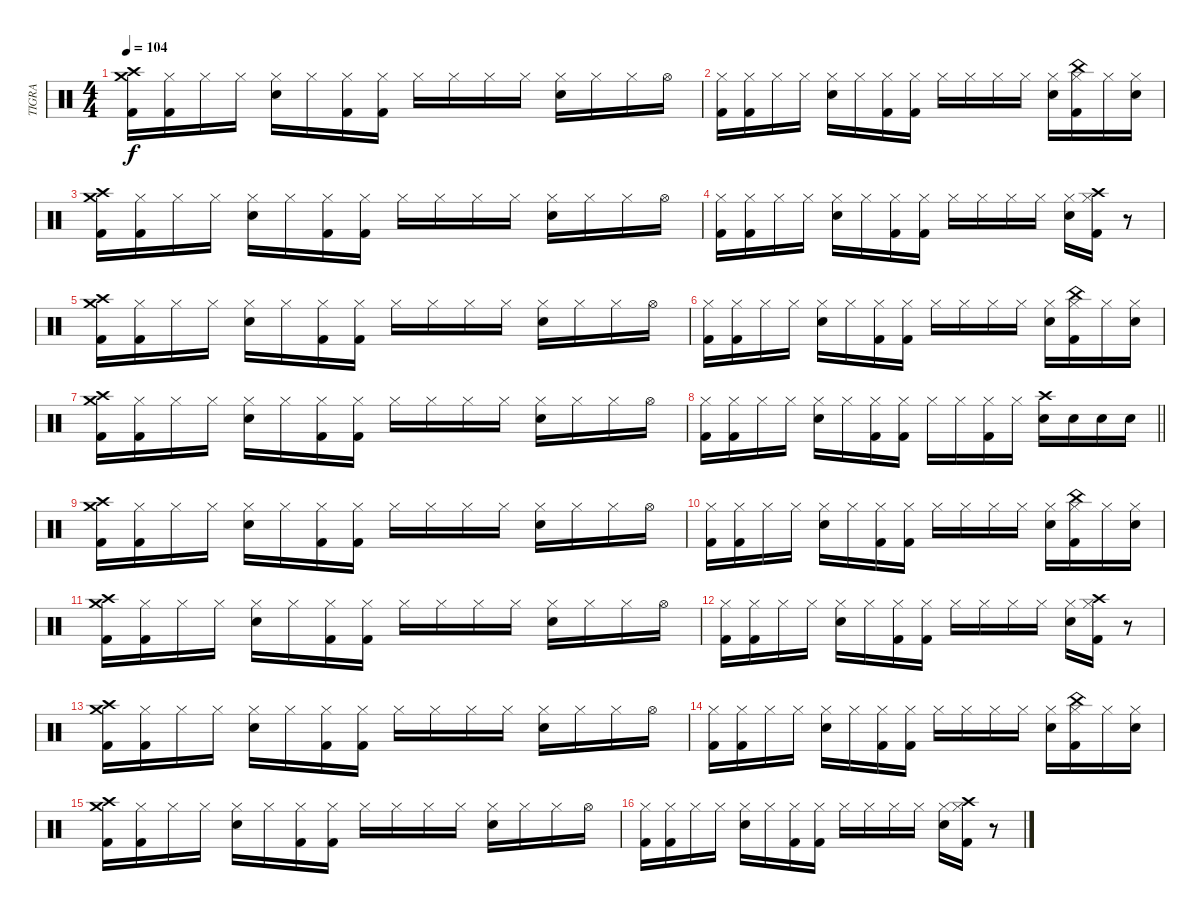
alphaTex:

\track ("TIGRA" "TIGRA") {instrument percussion}
\staff {score}
\articulation defaults
\ts (4 4)
\tempo 104
\clef neutral
\ks c
("Crash medium (hit)" "Crash high (hit)" "Kick (hit) 2").16{dy f} ("Hi-Hat (closed)" "Kick (hit) 2").16 "Hi-Hat (closed)".16 "Hi-Hat (closed)".16 ("Hi-Hat (closed)" "Snare (hit) 2").16 "Hi-Hat (closed)".16 ("Hi-Hat (closed)" "Kick (hit) 2").16 ("Hi-Hat (closed)" "Kick (hit) 2").16 "Hi-Hat (closed)".16 "Hi-Hat (closed)".16 "Hi-Hat (closed)".16 "Hi-Hat (closed)".16 ("Hi-Hat (closed)" "Snare (hit) 2").16 "Hi-Hat (closed)".16 "Hi-Hat (closed)".16 "Hi-Hat (open)".16 |
("Hi-Hat (closed)" "Kick (hit) 2").16 ("Hi-Hat (closed)" "Kick (hit) 2").16 "Hi-Hat (closed)".16 "Hi-Hat (closed)".16 ("Hi-Hat (closed)" "Snare (hit) 2").16 "Hi-Hat (closed)".16 ("Hi-Hat (closed)" "Kick (hit) 2").16 ("Hi-Hat (closed)" "Kick (hit) 2").16 "Hi-Hat (closed)".16 "Hi-Hat (closed)".16 "Hi-Hat (closed)".16 "Hi-Hat (closed)".16 ("Hi-Hat (closed)" "Snare (hit) 2").16 ("Hi-Hat (closed)" "China (hit)" "Kick (hit) 2").16 "Hi-Hat (closed)".16 ("Hi-Hat (closed)" "Snare (hit) 2").16 |
("Crash medium (hit)" "Crash high (hit)" "Kick (hit) 2").16 ("Hi-Hat (closed)" "Kick (hit) 2").16 "Hi-Hat (closed)".16 "Hi-Hat (closed)".16 ("Hi-Hat (closed)" "Snare (hit) 2").16 "Hi-Hat (closed)".16 ("Hi-Hat (closed)" "Kick (hit) 2").16 ("Hi-Hat (closed)" "Kick (hit) 2").16 "Hi-Hat (closed)".16 "Hi-Hat (closed)".16 "Hi-Hat (closed)".16 "Hi-Hat (closed)".16 ("Hi-Hat (closed)" "Snare (hit) 2").16 "Hi-Hat (closed)".16 "Hi-Hat (closed)".16 "Hi-Hat (open)".16 |
("Hi-Hat (closed)" "Kick (hit) 2").16 ("Hi-Hat (closed)" "Kick (hit) 2").16 "Hi-Hat (closed)".16 "Hi-Hat (closed)".16 ("Hi-Hat (closed)" "Snare (hit) 2").16 "Hi-Hat (closed)".16 ("Hi-Hat (closed)" "Kick (hit) 2").16 ("Hi-Hat (closed)" "Kick (hit) 2").16 "Hi-Hat (closed)".16 "Hi-Hat (closed)".16 "Hi-Hat (closed)".16 "Hi-Hat (closed)".16 ("Hi-Hat (closed)" "Snare (hit) 2").16 ("Hi-Hat (closed)" "Crash high (hit)" "Kick (hit) 2").16 r.8 |
("Crash medium (hit)" "Crash high (hit)" "Kick (hit) 2").16 ("Hi-Hat (closed)" "Kick (hit) 2").16 "Hi-Hat (closed)".16 "Hi-Hat (closed)".16 ("Hi-Hat (closed)" "Snare (hit) 2").16 "Hi-Hat (closed)".16 ("Hi-Hat (closed)" "Kick (hit) 2").16 ("Hi-Hat (closed)" "Kick (hit) 2").16 "Hi-Hat (closed)".16 "Hi-Hat (closed)".16 "Hi-Hat (closed)".16 "Hi-Hat (closed)".16 ("Hi-Hat (closed)" "Snare (hit) 2").16 "Hi-Hat (closed)".16 "Hi-Hat (closed)".16 "Hi-Hat (open)".16 |
("Hi-Hat (closed)" "Kick (hit) 2").16 ("Hi-Hat (closed)" "Kick (hit) 2").16 "Hi-Hat (closed)".16 "Hi-Hat (closed)".16 ("Hi-Hat (closed)" "Snare (hit) 2").16 "Hi-Hat (closed)".16 ("Hi-Hat (closed)" "Kick (hit) 2").16 ("Hi-Hat (closed)" "Kick (hit) 2").16 "Hi-Hat (closed)".16 "Hi-Hat (closed)".16 "Hi-Hat (closed)".16 "Hi-Hat (closed)".16 ("Hi-Hat (closed)" "Snare (hit) 2").16 ("Hi-Hat (closed)" "China (hit)" "Kick (hit) 2").16 "Hi-Hat (closed)".16 ("Hi-Hat (closed)" "Snare (hit) 2").16 |
("Crash medium (hit)" "Crash high (hit)" "Kick (hit) 2").16 ("Hi-Hat (closed)" "Kick (hit) 2").16 "Hi-Hat (closed)".16 "Hi-Hat (closed)".16 ("Hi-Hat (closed)" "Snare (hit) 2").16 "Hi-Hat (closed)".16 ("Hi-Hat (closed)" "Kick (hit) 2").16 ("Hi-Hat (closed)" "Kick (hit) 2").16 "Hi-Hat (closed)".16 "Hi-Hat (closed)".16 "Hi-Hat (closed)".16 "Hi-Hat (closed)".16 ("Hi-Hat (closed)" "Snare (hit) 2").16 "Hi-Hat (closed)".16 "Hi-Hat (closed)".16 "Hi-Hat (open)".16 |
\barLineRight lightlight
("Hi-Hat (closed)" "Kick (hit) 2").16 ("Hi-Hat (closed)" "Kick (hit) 2").16 "Hi-Hat (closed)".16 "Hi-Hat (closed)".16 ("Hi-Hat (closed)" "Snare (hit) 2").16 "Hi-Hat (closed)".16 ("Hi-Hat (closed)" "Kick (hit) 2").16 ("Hi-Hat (closed)" "Kick (hit) 2").16 "Hi-Hat (closed)".16 "Hi-Hat (closed)".16 ("Hi-Hat (closed)" "Kick (hit) 2").16 "Hi-Hat (closed)".16 ("Crash high (hit)" "Snare (hit) 2").16 "Snare (hit) 2".16 "Snare (hit) 2".16 "Snare (hit) 2".16 |
("Crash medium (hit)" "Crash high (hit)" "Kick (hit) 2").16 ("Hi-Hat (closed)" "Kick (hit) 2").16 "Hi-Hat (closed)".16 "Hi-Hat (closed)".16 ("Hi-Hat (closed)" "Snare (hit) 2").16 "Hi-Hat (closed)".16 ("Hi-Hat (closed)" "Kick (hit) 2").16 ("Hi-Hat (closed)" "Kick (hit) 2").16 "Hi-Hat (closed)".16 "Hi-Hat (closed)".16 "Hi-Hat (closed)".16 "Hi-Hat (closed)".16 ("Hi-Hat (closed)" "Snare (hit) 2").16 "Hi-Hat (closed)".16 "Hi-Hat (closed)".16 "Hi-Hat (open)".16 |
("Hi-Hat (closed)" "Kick (hit) 2").16 ("Hi-Hat (closed)" "Kick (hit) 2").16 "Hi-Hat (closed)".16 "Hi-Hat (closed)".16 ("Hi-Hat (closed)" "Snare (hit) 2").16 "Hi-Hat (closed)".16 ("Hi-Hat (closed)" "Kick (hit) 2").16 ("Hi-Hat (closed)" "Kick (hit) 2").16 "Hi-Hat (closed)".16 "Hi-Hat (closed)".16 "Hi-Hat (closed)".16 "Hi-Hat (closed)".16 ("Hi-Hat (closed)" "Snare (hit) 2").16 ("Hi-Hat (closed)" "China (hit)" "Kick (hit) 2").16 "Hi-Hat (closed)".16 ("Hi-Hat (closed)" "Snare (hit) 2").16 |
("Crash medium (hit)" "Crash high (hit)" "Kick (hit) 2").16 ("Hi-Hat (closed)" "Kick (hit) 2").16 "Hi-Hat (closed)".16 "Hi-Hat (closed)".16 ("Hi-Hat (closed)" "Snare (hit) 2").16 "Hi-Hat (closed)".16 ("Hi-Hat (closed)" "Kick (hit) 2").16 ("Hi-Hat (closed)" "Kick (hit) 2").16 "Hi-Hat (closed)".16 "Hi-Hat (closed)".16 "Hi-Hat (closed)".16 "Hi-Hat (closed)".16 ("Hi-Hat (closed)" "Snare (hit) 2").16 "Hi-Hat (closed)".16 "Hi-Hat (closed)".16 "Hi-Hat (open)".16 |
("Hi-Hat (closed)" "Kick (hit) 2").16 ("Hi-Hat (closed)" "Kick (hit) 2").16 "Hi-Hat (closed)".16 "Hi-Hat (closed)".16 ("Hi-Hat (closed)" "Snare (hit) 2").16 "Hi-Hat (closed)".16 ("Hi-Hat (closed)" "Kick (hit) 2").16 ("Hi-Hat (closed)" "Kick (hit) 2").16 "Hi-Hat (closed)".16 "Hi-Hat (closed)".16 "Hi-Hat (closed)".16 "Hi-Hat (closed)".16 ("Hi-Hat (closed)" "Snare (hit) 2").16 ("Hi-Hat (closed)" "Crash high (hit)" "Kick (hit) 2").16 r.8 |
("Crash medium (hit)" "Crash high (hit)" "Kick (hit) 2").16 ("Hi-Hat (closed)" "Kick (hit) 2").16 "Hi-Hat (closed)".16 "Hi-Hat (closed)".16 ("Hi-Hat (closed)" "Snare (hit) 2").16 "Hi-Hat (closed)".16 ("Hi-Hat (closed)" "Kick (hit) 2").16 ("Hi-Hat (closed)" "Kick (hit) 2").16 "Hi-Hat (closed)".16 "Hi-Hat (closed)".16 "Hi-Hat (closed)".16 "Hi-Hat (closed)".16 ("Hi-Hat (closed)" "Snare (hit) 2").16 "Hi-Hat (closed)".16 "Hi-Hat (closed)".16 "Hi-Hat (open)".16 |
("Hi-Hat (closed)" "Kick (hit) 2").16 ("Hi-Hat (closed)" "Kick (hit) 2").16 "Hi-Hat (closed)".16 "Hi-Hat (closed)".16 ("Hi-Hat (closed)" "Snare (hit) 2").16 "Hi-Hat (closed)".16 ("Hi-Hat (closed)" "Kick (hit) 2").16 ("Hi-Hat (closed)" "Kick (hit) 2").16 "Hi-Hat (closed)".16 "Hi-Hat (closed)".16 "Hi-Hat (closed)".16 "Hi-Hat (closed)".16 ("Hi-Hat (closed)" "Snare (hit) 2").16 ("Hi-Hat (closed)" "China (hit)" "Kick (hit) 2").16 "Hi-Hat (closed)".16 ("Hi-Hat (closed)" "Snare (hit) 2").16 |
("Crash medium (hit)" "Crash high (hit)" "Kick (hit) 2").16 ("Hi-Hat (closed)" "Kick (hit) 2").16 "Hi-Hat (closed)".16 "Hi-Hat (closed)".16 ("Hi-Hat (closed)" "Snare (hit) 2").16 "Hi-Hat (closed)".16 ("Hi-Hat (closed)" "Kick (hit) 2").16 ("Hi-Hat (closed)" "Kick (hit) 2").16 "Hi-Hat (closed)".16 "Hi-Hat (closed)".16 "Hi-Hat (closed)".16 "Hi-Hat (closed)".16 ("Hi-Hat (closed)" "Snare (hit) 2").16 "Hi-Hat (closed)".16 "Hi-Hat (closed)".16 "Hi-Hat (open)".16 |
("Hi-Hat (closed)" "Kick (hit) 2").16 ("Hi-Hat (closed)" "Kick (hit) 2").16 "Hi-Hat (closed)".16 "Hi-Hat (closed)".16 ("Hi-Hat (closed)" "Snare (hit) 2").16 "Hi-Hat (closed)".16 ("Hi-Hat (closed)" "Kick (hit) 2").16 ("Hi-Hat (closed)" "Kick (hit) 2").16 "Hi-Hat (closed)".16 "Hi-Hat (closed)".16 "Hi-Hat (closed)".16 "Hi-Hat (closed)".16 ("Hi-Hat (closed)" "Snare (hit) 2").16 ("Hi-Hat (closed)" "Crash high (hit)" "Kick (hit) 2").16 r.8
